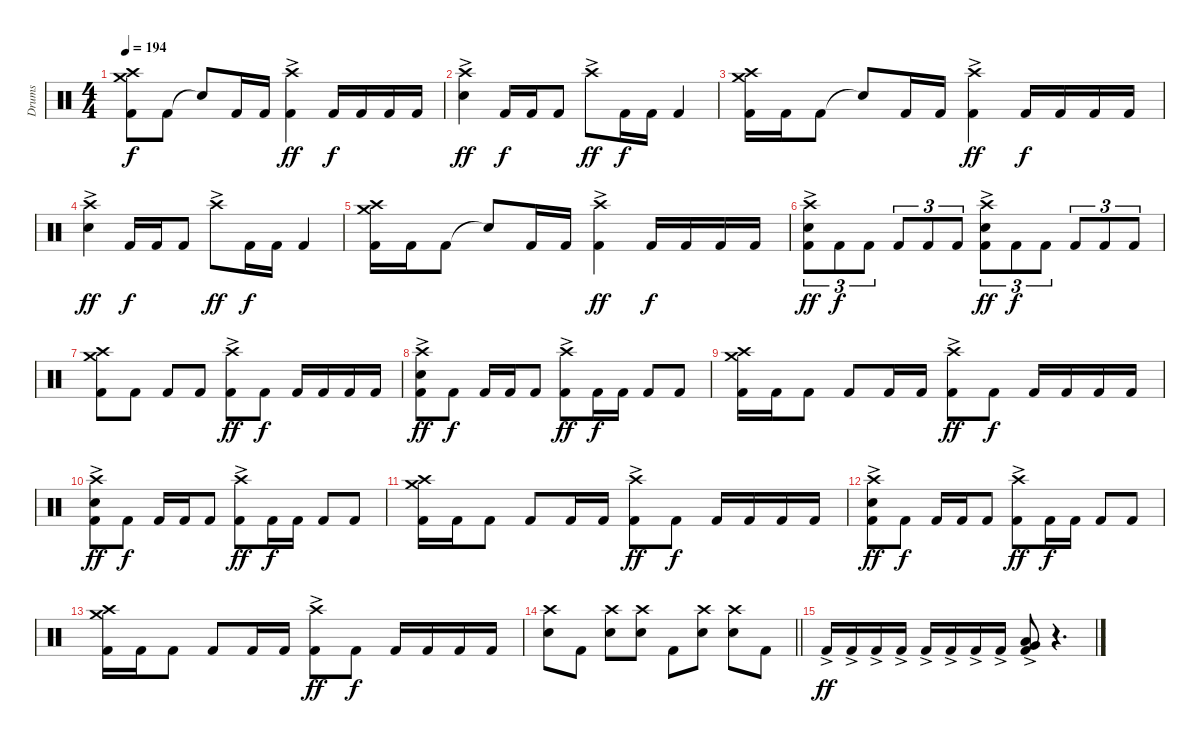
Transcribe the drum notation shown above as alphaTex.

\track ("Drums" "Drums") {instrument percussion}
\staff {score}
\articulation defaults
\ts (4 4)
\tempo 194
\clef neutral
\ks c
("Crash medium (hit)" "Crash high (hit)" "Kick (hit) 2").8{dy f} "Kick (hit) 2".8 "Snare (hit)"{t}.8 "Kick (hit) 2".16 "Kick (hit) 2".16 ("Crash high (hit)"{ac} "Kick (hit) 2").4{dy ff} "Kick (hit) 2".16{dy f} "Kick (hit) 2".16 "Kick (hit) 2".16 "Kick (hit) 2".16 |
("Crash high (hit)"{ac} "Electric Snare (hit)").4{dy ff} "Kick (hit) 2".16{dy f} "Kick (hit) 2".16 "Kick (hit) 2".8 "Crash high (hit)"{ac}.8{dy ff} "Kick (hit) 2".16{dy f} "Kick (hit) 2".16 "Kick (hit) 2".4 |
("Crash medium (hit)" "Crash high (hit)" "Kick (hit) 2").16 "Kick (hit) 2".16 "Kick (hit) 2".8 "Snare (hit)"{t}.8 "Kick (hit) 2".16 "Kick (hit) 2".16 ("Crash high (hit)"{ac} "Kick (hit) 2").4{dy ff} "Kick (hit) 2".16{dy f} "Kick (hit) 2".16 "Kick (hit) 2".16 "Kick (hit) 2".16 |
("Crash high (hit)"{ac} "Electric Snare (hit)").4{dy ff} "Kick (hit) 2".16{dy f} "Kick (hit) 2".16 "Kick (hit) 2".8 "Crash high (hit)"{ac}.8{dy ff} "Kick (hit) 2".16{dy f} "Kick (hit) 2".16 "Kick (hit) 2".4 |
("Crash medium (hit)" "Crash high (hit)" "Kick (hit) 2").16 "Kick (hit) 2".16 "Kick (hit) 2".8 "Snare (hit)"{t}.8 "Kick (hit) 2".16 "Kick (hit) 2".16 ("Crash high (hit)"{ac} "Kick (hit) 2").4{dy ff} "Kick (hit) 2".16{dy f} "Kick (hit) 2".16 "Kick (hit) 2".16 "Kick (hit) 2".16 |
("Crash high (hit)"{ac} "Electric Snare (hit)" "Kick (hit) 2").8{tu (3 2) dy ff} "Kick (hit) 2".8{tu (3 2) dy f} "Kick (hit) 2".8{tu (3 2)} "Kick (hit) 2".8{tu (3 2)} "Kick (hit) 2".8{tu (3 2)} "Kick (hit) 2".8{tu (3 2)} ("Crash high (hit)"{ac} "Electric Snare (hit)" "Kick (hit) 2").8{tu (3 2) dy ff} "Kick (hit) 2".8{tu (3 2) dy f} "Kick (hit) 2".8{tu (3 2)} "Kick (hit) 2".8{tu (3 2)} "Kick (hit) 2".8{tu (3 2)} "Kick (hit) 2".8{tu (3 2)} |
("Crash medium (hit)" "Crash high (hit)" "Kick (hit) 2").8 "Kick (hit) 2".8 "Kick (hit) 2".8 "Kick (hit) 2".8 ("Crash high (hit)"{ac} "Kick (hit) 2").8{dy ff} "Kick (hit) 2".8{dy f} "Kick (hit) 2".16 "Kick (hit) 2".16 "Kick (hit) 2".16 "Kick (hit) 2".16 |
("Crash high (hit)"{ac} "Electric Snare (hit)" "Kick (hit) 2").8{dy ff} "Kick (hit) 2".8{dy f} "Kick (hit) 2".16 "Kick (hit) 2".16 "Kick (hit) 2".8 ("Crash high (hit)"{ac} "Kick (hit) 2").8{dy ff} "Kick (hit) 2".16{dy f} "Kick (hit) 2".16 "Kick (hit) 2".8 "Kick (hit) 2".8 |
("Crash medium (hit)" "Crash high (hit)" "Kick (hit) 2").16 "Kick (hit) 2".16 "Kick (hit) 2".8 "Kick (hit) 2".8 "Kick (hit) 2".16 "Kick (hit) 2".16 ("Crash high (hit)"{ac} "Kick (hit) 2").8{dy ff} "Kick (hit) 2".8{dy f} "Kick (hit) 2".16 "Kick (hit) 2".16 "Kick (hit) 2".16 "Kick (hit) 2".16 |
("Crash high (hit)"{ac} "Electric Snare (hit)" "Kick (hit) 2").8{dy ff} "Kick (hit) 2".8{dy f} "Kick (hit) 2".16 "Kick (hit) 2".16 "Kick (hit) 2".8 ("Crash high (hit)"{ac} "Kick (hit) 2").8{dy ff} "Kick (hit) 2".16{dy f} "Kick (hit) 2".16 "Kick (hit) 2".8 "Kick (hit) 2".8 |
("Crash medium (hit)" "Crash high (hit)" "Kick (hit) 2").16 "Kick (hit) 2".16 "Kick (hit) 2".8 "Kick (hit) 2".8 "Kick (hit) 2".16 "Kick (hit) 2".16 ("Crash high (hit)"{ac} "Kick (hit) 2").8{dy ff} "Kick (hit) 2".8{dy f} "Kick (hit) 2".16 "Kick (hit) 2".16 "Kick (hit) 2".16 "Kick (hit) 2".16 |
("Crash high (hit)"{ac} "Electric Snare (hit)" "Kick (hit) 2").8{dy ff} "Kick (hit) 2".8{dy f} "Kick (hit) 2".16 "Kick (hit) 2".16 "Kick (hit) 2".8 ("Crash high (hit)"{ac} "Kick (hit) 2").8{dy ff} "Kick (hit) 2".16{dy f} "Kick (hit) 2".16 "Kick (hit) 2".8 "Kick (hit) 2".8 |
("Crash medium (hit)" "Crash high (hit)" "Kick (hit) 2").16 "Kick (hit) 2".16 "Kick (hit) 2".8 "Kick (hit) 2".8 "Kick (hit) 2".16 "Kick (hit) 2".16 ("Crash high (hit)"{ac} "Kick (hit) 2").8{dy ff} "Kick (hit) 2".8{dy f} "Kick (hit) 2".16 "Kick (hit) 2".16 "Kick (hit) 2".16 "Kick (hit) 2".16 |
\barLineRight lightlight
("Crash high (hit)" "Electric Snare (hit)").8 "Kick (hit) 2".8 ("Crash high (hit)" "Electric Snare (hit)").8 ("Crash high (hit)" "Electric Snare (hit)").8 "Kick (hit) 2".8 ("Crash high (hit)" "Electric Snare (hit)").8 ("Crash high (hit)" "Electric Snare (hit)").8 "Kick (hit) 2".8 |
\section ("" "")
"Kick (hit) 2"{ac}.16{dy ff} "Kick (hit) 2"{ac}.16 "Kick (hit) 2"{ac}.16 "Kick (hit) 2"{ac}.16 "Kick (hit) 2"{ac}.16 "Kick (hit) 2"{ac}.16 "Kick (hit) 2"{ac}.16 "Kick (hit) 2"{ac}.16 ("Very Low Tom (hit)"{ac} "Low Floor Tom (hit)"{ac} "Kick (hit) 2"{ac}).8 r.4{d}
